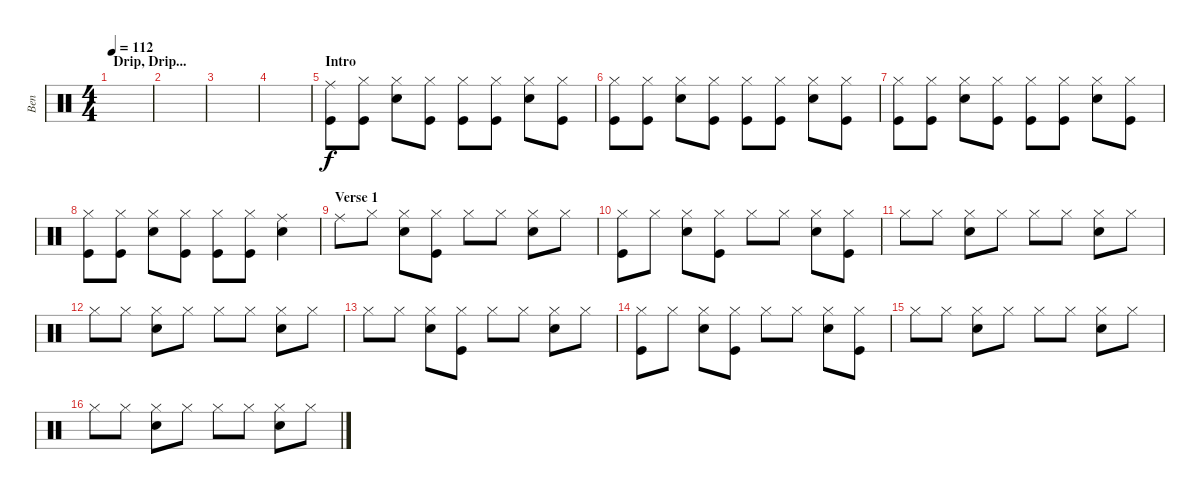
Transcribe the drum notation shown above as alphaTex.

\track ("Ben" "Ben") {instrument percussion}
\staff {score}
\articulation defaults
\ts (4 4)
\section ("" "Drip, Drip...")
\tempo 112
\clef neutral
\ks c
|
|
|
|
\section ("" "Intro")
("Ride (middle)" "Kick (hit)").8 ("Hi-Hat (closed)" "Kick (hit)").8 ("Hi-Hat (closed)" "Snare (hit) 2").8 ("Hi-Hat (closed)" "Kick (hit)").8 ("Hi-Hat (closed)" "Kick (hit)").8 ("Hi-Hat (closed)" "Kick (hit)").8 ("Hi-Hat (closed)" "Snare (hit) 2").8 ("Hi-Hat (closed)" "Kick (hit)").8 |
("Hi-Hat (closed)" "Kick (hit)").8 ("Hi-Hat (closed)" "Kick (hit)").8 ("Hi-Hat (closed)" "Snare (hit) 2").8 ("Hi-Hat (closed)" "Kick (hit)").8 ("Hi-Hat (closed)" "Kick (hit)").8 ("Hi-Hat (closed)" "Kick (hit)").8 ("Hi-Hat (closed)" "Snare (hit) 2").8 ("Hi-Hat (closed)" "Kick (hit)").8 |
("Hi-Hat (closed)" "Kick (hit)").8 ("Hi-Hat (closed)" "Kick (hit)").8 ("Hi-Hat (closed)" "Snare (hit) 2").8 ("Hi-Hat (closed)" "Kick (hit)").8 ("Hi-Hat (closed)" "Kick (hit)").8 ("Hi-Hat (closed)" "Kick (hit)").8 ("Hi-Hat (closed)" "Snare (hit) 2").8 ("Hi-Hat (closed)" "Kick (hit)").8 |
("Hi-Hat (closed)" "Kick (hit)").8 ("Hi-Hat (closed)" "Kick (hit)").8 ("Hi-Hat (closed)" "Snare (hit) 2").8 ("Hi-Hat (closed)" "Kick (hit)").8 ("Hi-Hat (closed)" "Kick (hit)").8 ("Hi-Hat (closed)" "Kick (hit)").8 ("Ride (middle)" "Snare (hit) 2").4 |
\section ("" "Verse 1")
"Ride (middle)".8 "Hi-Hat (closed)".8 ("Hi-Hat (closed)" "Snare (hit) 2").8 ("Hi-Hat (closed)" "Kick (hit)").8 "Hi-Hat (closed)".8 "Hi-Hat (closed)".8 ("Hi-Hat (closed)" "Snare (hit) 2").8 "Hi-Hat (closed)".8 |
("Hi-Hat (closed)" "Kick (hit)").8 "Hi-Hat (closed)".8 ("Hi-Hat (closed)" "Snare (hit) 2").8 ("Hi-Hat (closed)" "Kick (hit)").8 "Hi-Hat (closed)".8 "Hi-Hat (closed)".8 ("Hi-Hat (closed)" "Snare (hit) 2").8 ("Hi-Hat (closed)" "Kick (hit)").8 |
"Hi-Hat (closed)".8 "Hi-Hat (closed)".8 ("Hi-Hat (closed)" "Snare (hit) 2").8 "Hi-Hat (closed)".8 "Hi-Hat (closed)".8 "Hi-Hat (closed)".8 ("Hi-Hat (closed)" "Snare (hit) 2").8 "Hi-Hat (closed)".8 |
"Hi-Hat (closed)".8 "Hi-Hat (closed)".8 ("Hi-Hat (closed)" "Snare (hit) 2").8 "Hi-Hat (closed)".8 "Hi-Hat (closed)".8 "Hi-Hat (closed)".8 ("Hi-Hat (closed)" "Snare (hit) 2").8 "Hi-Hat (closed)".8 |
"Hi-Hat (closed)".8 "Hi-Hat (closed)".8 ("Hi-Hat (closed)" "Snare (hit) 2").8 ("Hi-Hat (closed)" "Kick (hit)").8 "Hi-Hat (closed)".8 "Hi-Hat (closed)".8 ("Hi-Hat (closed)" "Snare (hit) 2").8 "Hi-Hat (closed)".8 |
("Hi-Hat (closed)" "Kick (hit)").8 "Hi-Hat (closed)".8 ("Hi-Hat (closed)" "Snare (hit) 2").8 ("Hi-Hat (closed)" "Kick (hit)").8 "Hi-Hat (closed)".8 "Hi-Hat (closed)".8 ("Hi-Hat (closed)" "Snare (hit) 2").8 ("Hi-Hat (closed)" "Kick (hit)").8 |
"Hi-Hat (closed)".8 "Hi-Hat (closed)".8 ("Hi-Hat (closed)" "Snare (hit) 2").8 "Hi-Hat (closed)".8 "Hi-Hat (closed)".8 "Hi-Hat (closed)".8 ("Hi-Hat (closed)" "Snare (hit) 2").8 "Hi-Hat (closed)".8 |
"Hi-Hat (closed)".8 "Hi-Hat (closed)".8 ("Hi-Hat (closed)" "Snare (hit) 2").8 "Hi-Hat (closed)".8 "Hi-Hat (closed)".8 "Hi-Hat (closed)".8 ("Hi-Hat (closed)" "Snare (hit) 2").8 "Hi-Hat (closed)".8
